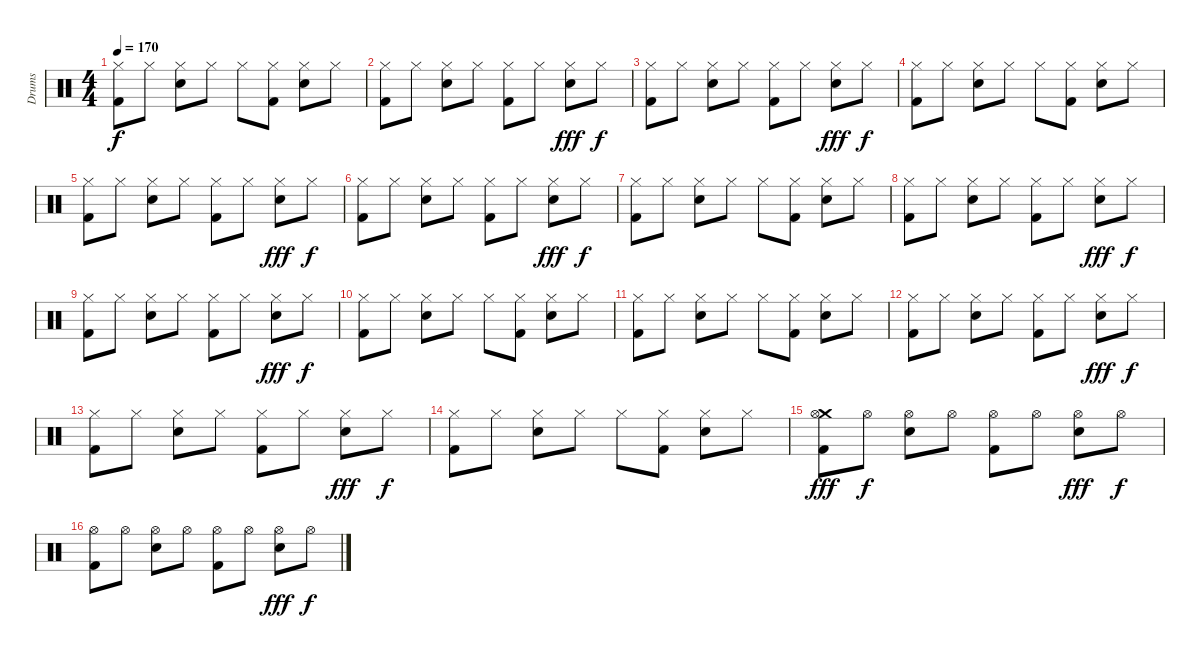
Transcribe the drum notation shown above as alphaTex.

\track ("Drums" "Drums") {instrument percussion}
\staff {score}
\articulation defaults
\ts (4 4)
\tempo 170
\clef neutral
\ks c
("Hi-Hat (closed)" "Kick (hit) 2").8{dy f} "Hi-Hat (closed)".8 ("Hi-Hat (closed)" "Electric Snare (hit)").8 "Hi-Hat (closed)".8 "Hi-Hat (closed)".8 ("Hi-Hat (closed)" "Kick (hit) 2").8 ("Hi-Hat (closed)" "Electric Snare (hit)").8 "Hi-Hat (closed)".8 |
("Hi-Hat (closed)" "Kick (hit) 2").8 "Hi-Hat (closed)".8 ("Hi-Hat (closed)" "Electric Snare (hit)").8 "Hi-Hat (closed)".8 ("Hi-Hat (closed)" "Kick (hit) 2").8 "Hi-Hat (closed)".8 ("Hi-Hat (closed)" "Electric Snare (hit)").8{dy fff} "Hi-Hat (closed)".8{dy f} |
("Hi-Hat (closed)" "Kick (hit) 2").8 "Hi-Hat (closed)".8 ("Hi-Hat (closed)" "Electric Snare (hit)").8 "Hi-Hat (closed)".8 ("Hi-Hat (closed)" "Kick (hit) 2").8 "Hi-Hat (closed)".8 ("Hi-Hat (closed)" "Electric Snare (hit)").8{dy fff} "Hi-Hat (closed)".8{dy f} |
("Hi-Hat (closed)" "Kick (hit) 2").8 "Hi-Hat (closed)".8 ("Hi-Hat (closed)" "Electric Snare (hit)").8 "Hi-Hat (closed)".8 "Hi-Hat (closed)".8 ("Hi-Hat (closed)" "Kick (hit) 2").8 ("Hi-Hat (closed)" "Electric Snare (hit)").8 "Hi-Hat (closed)".8 |
("Hi-Hat (closed)" "Kick (hit) 2").8 "Hi-Hat (closed)".8 ("Hi-Hat (closed)" "Electric Snare (hit)").8 "Hi-Hat (closed)".8 ("Hi-Hat (closed)" "Kick (hit) 2").8 "Hi-Hat (closed)".8 ("Hi-Hat (closed)" "Electric Snare (hit)").8{dy fff} "Hi-Hat (closed)".8{dy f} |
("Hi-Hat (closed)" "Kick (hit) 2").8 "Hi-Hat (closed)".8 ("Hi-Hat (closed)" "Electric Snare (hit)").8 "Hi-Hat (closed)".8 ("Hi-Hat (closed)" "Kick (hit) 2").8 "Hi-Hat (closed)".8 ("Hi-Hat (closed)" "Electric Snare (hit)").8{dy fff} "Hi-Hat (closed)".8{dy f} |
("Hi-Hat (closed)" "Kick (hit) 2").8 "Hi-Hat (closed)".8 ("Hi-Hat (closed)" "Electric Snare (hit)").8 "Hi-Hat (closed)".8 "Hi-Hat (closed)".8 ("Hi-Hat (closed)" "Kick (hit) 2").8 ("Hi-Hat (closed)" "Electric Snare (hit)").8 "Hi-Hat (closed)".8 |
("Hi-Hat (closed)" "Kick (hit) 2").8 "Hi-Hat (closed)".8 ("Hi-Hat (closed)" "Electric Snare (hit)").8 "Hi-Hat (closed)".8 ("Hi-Hat (closed)" "Kick (hit) 2").8 "Hi-Hat (closed)".8 ("Hi-Hat (closed)" "Electric Snare (hit)").8{dy fff} "Hi-Hat (closed)".8{dy f} |
("Hi-Hat (closed)" "Kick (hit) 2").8 "Hi-Hat (closed)".8 ("Hi-Hat (closed)" "Electric Snare (hit)").8 "Hi-Hat (closed)".8 ("Hi-Hat (closed)" "Kick (hit) 2").8 "Hi-Hat (closed)".8 ("Hi-Hat (closed)" "Electric Snare (hit)").8{dy fff} "Hi-Hat (closed)".8{dy f} |
("Hi-Hat (closed)" "Kick (hit) 2").8 "Hi-Hat (closed)".8 ("Hi-Hat (closed)" "Electric Snare (hit)").8 "Hi-Hat (closed)".8 "Hi-Hat (closed)".8 ("Hi-Hat (closed)" "Kick (hit) 2").8 ("Hi-Hat (closed)" "Electric Snare (hit)").8 "Hi-Hat (closed)".8 |
("Hi-Hat (closed)" "Kick (hit) 2").8 "Hi-Hat (closed)".8 ("Hi-Hat (closed)" "Electric Snare (hit)").8 "Hi-Hat (closed)".8 "Hi-Hat (closed)".8 ("Hi-Hat (closed)" "Kick (hit) 2").8 ("Hi-Hat (closed)" "Electric Snare (hit)").8 "Hi-Hat (closed)".8 |
("Hi-Hat (closed)" "Kick (hit) 2").8 "Hi-Hat (closed)".8 ("Hi-Hat (closed)" "Electric Snare (hit)").8 "Hi-Hat (closed)".8 ("Hi-Hat (closed)" "Kick (hit) 2").8 "Hi-Hat (closed)".8 ("Hi-Hat (closed)" "Electric Snare (hit)").8{dy fff} "Hi-Hat (closed)".8{dy f} |
("Hi-Hat (closed)" "Kick (hit) 2").8 "Hi-Hat (closed)".8 ("Hi-Hat (closed)" "Electric Snare (hit)").8 "Hi-Hat (closed)".8 ("Hi-Hat (closed)" "Kick (hit) 2").8 "Hi-Hat (closed)".8 ("Hi-Hat (closed)" "Electric Snare (hit)").8{dy fff} "Hi-Hat (closed)".8{dy f} |
("Hi-Hat (closed)" "Kick (hit) 2").8 "Hi-Hat (closed)".8 ("Hi-Hat (closed)" "Electric Snare (hit)").8 "Hi-Hat (closed)".8 "Hi-Hat (closed)".8 ("Hi-Hat (closed)" "Kick (hit) 2").8 ("Hi-Hat (closed)" "Electric Snare (hit)").8 "Hi-Hat (closed)".8 |
("Crash medium (hit)" "Hi-Hat (open)" "Kick (hit) 2").8{dy fff} "Hi-Hat (open)".8{dy f} ("Hi-Hat (open)" "Electric Snare (hit)").8 "Hi-Hat (open)".8 ("Hi-Hat (open)" "Kick (hit) 2").8 "Hi-Hat (open)".8 ("Hi-Hat (open)" "Electric Snare (hit)").8{dy fff} "Hi-Hat (open)".8{dy f} |
("Hi-Hat (open)" "Kick (hit) 2").8 "Hi-Hat (open)".8 ("Hi-Hat (open)" "Electric Snare (hit)").8 "Hi-Hat (open)".8 ("Hi-Hat (open)" "Kick (hit) 2").8 "Hi-Hat (open)".8 ("Hi-Hat (open)" "Electric Snare (hit)").8{dy fff} "Hi-Hat (open)".8{dy f}
